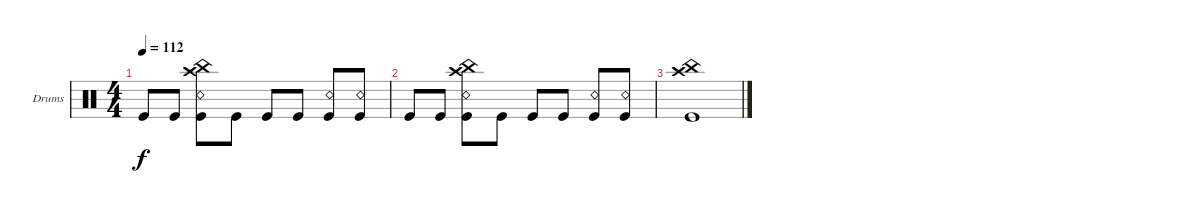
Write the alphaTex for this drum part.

\defaultSystemsLayout 4
\bracketExtendMode groupsimilarinstruments
\firstSystemTrackNameOrientation horizontal
\otherSystemsTrackNameOrientation horizontal
\track ("Drumkit" "Drums") {instrument percussion}
\staff {score}
\articulation defaults
\ts (4 4)
\tempo 112
\clef neutral
\scale
0.973518
\ks c "Kick (hit)".8{dy f} "Kick (hit)".8
("Kick (hit)" "Snare (rim shot)" "China (hit)" "Crash high (hit)").8 "Kick (hit)".8 "Kick (hit)".8 "Kick (hit)".8 ("Kick (hit)" "Snare (rim shot)").8 ("Kick (hit)" "Snare (rim shot)").8 |
"Kick (hit)".8 "Kick (hit)".8 ("Kick (hit)" "Snare (rim shot)" "China (hit)" "Crash high (hit)").8 "Kick (hit)".8 "Kick (hit)".8 "Kick (hit)".8 ("Kick (hit)" "Snare (rim shot)").8 ("Kick (hit)" "Snare (rim shot)").8 |
("Kick (hit)" "China (hit)" "Crash high (hit)").1
